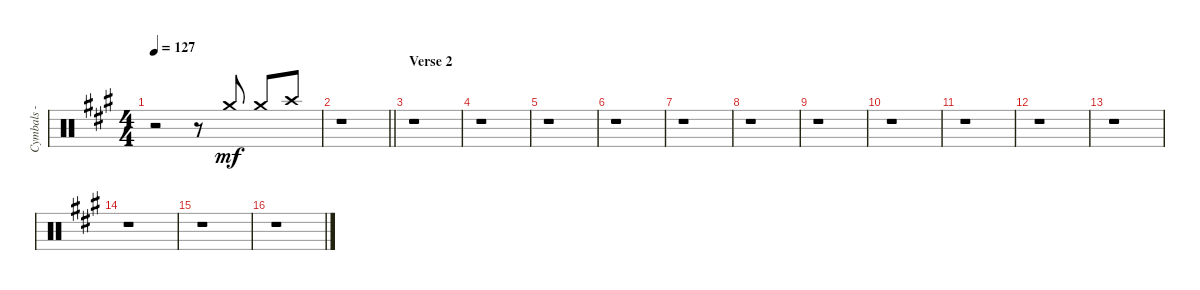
\track ("Cymbals - crash" "Cymbals - ") {instrument percussion}
\staff {score}
\articulation defaults
\ts (4 4)
\tempo 127
\clef neutral
\ks a
r.2{dy mf} r.8 "Crash medium (hit)".8{beam Up} "Crash medium (hit)".8{beam Up} "Crash high (hit)".8{beam Up} |
\barLineRight lightlight
r.1 |
\section ("" "Verse 2")
r.1 |
r.1 |
r.1 |
r.1 |
r.1 |
r.1 |
r.1 |
r.1 |
r.1 |
r.1 |
r.1 |
r.1 |
r.1 |
r.1
